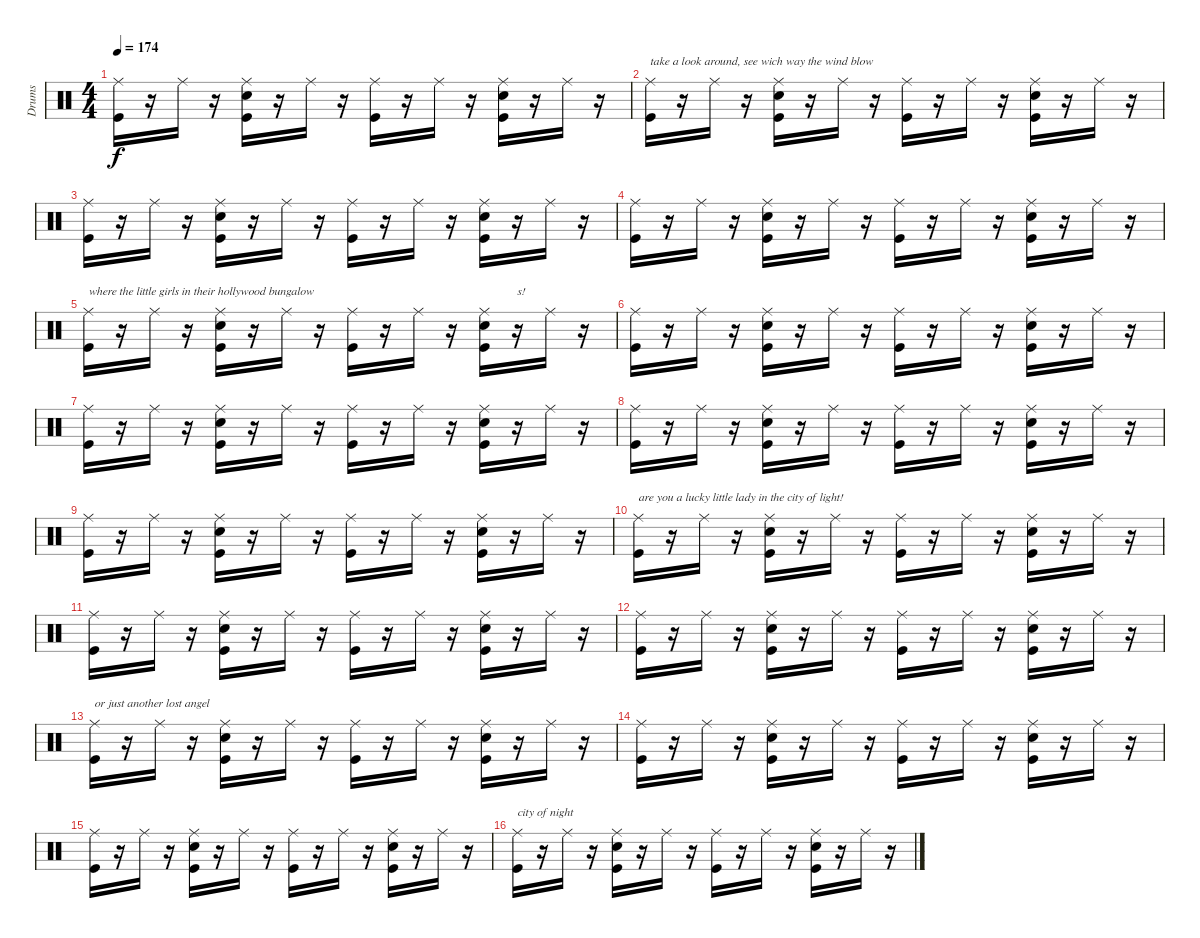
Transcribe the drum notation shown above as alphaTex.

\track ("Drums" "Drums") {instrument percussion}
\staff {score}
\articulation defaults
\ts (4 4)
\tempo 174
\clef neutral
\ks c
("Kick (hit)" "Ride (middle)").16{dy f} r.16 "Ride (middle)".16 r.16 ("Kick (hit)" "Snare (hit) 2" "Ride (middle)").16 r.16 "Ride (middle)".16 r.16 ("Kick (hit)" "Ride (middle)").16 r.16 "Ride (middle)".16 r.16 ("Kick (hit)" "Snare (hit) 2" "Ride (middle)").16 r.16 "Ride (middle)".16 r.16 |
("Kick (hit)" "Ride (middle)").16{txt "take a look around, see wich way the wind blow"} r.16 "Ride (middle)".16 r.16 ("Kick (hit)" "Snare (hit) 2" "Ride (middle)").16 r.16 "Ride (middle)".16 r.16 ("Kick (hit)" "Ride (middle)").16 r.16 "Ride (middle)".16 r.16 ("Kick (hit)" "Snare (hit) 2" "Ride (middle)").16 r.16 "Ride (middle)".16 r.16 |
("Kick (hit)" "Ride (middle)").16 r.16 "Ride (middle)".16 r.16 ("Kick (hit)" "Snare (hit) 2" "Ride (middle)").16 r.16 "Ride (middle)".16 r.16 ("Kick (hit)" "Ride (middle)").16 r.16 "Ride (middle)".16 r.16 ("Kick (hit)" "Snare (hit) 2" "Ride (middle)").16 r.16 "Ride (middle)".16 r.16 |
("Kick (hit)" "Ride (middle)").16 r.16 "Ride (middle)".16 r.16 ("Kick (hit)" "Snare (hit) 2" "Ride (middle)").16 r.16 "Ride (middle)".16 r.16 ("Kick (hit)" "Ride (middle)").16 r.16 "Ride (middle)".16 r.16 ("Kick (hit)" "Snare (hit) 2" "Ride (middle)").16 r.16 "Ride (middle)".16 r.16 |
("Kick (hit)" "Ride (middle)").16{txt "where the little girls in their hollywood bungalow"} r.16 "Ride (middle)".16 r.16 ("Kick (hit)" "Snare (hit) 2" "Ride (middle)").16 r.16 "Ride (middle)".16 r.16 ("Kick (hit)" "Ride (middle)").16 r.16 "Ride (middle)".16 r.16 ("Kick (hit)" "Snare (hit) 2" "Ride (middle)").16 r.16{txt "s!"} "Ride (middle)".16 r.16 |
("Kick (hit)" "Ride (middle)").16 r.16 "Ride (middle)".16 r.16 ("Kick (hit)" "Snare (hit) 2" "Ride (middle)").16 r.16 "Ride (middle)".16 r.16 ("Kick (hit)" "Ride (middle)").16 r.16 "Ride (middle)".16 r.16 ("Kick (hit)" "Snare (hit) 2" "Ride (middle)").16 r.16 "Ride (middle)".16 r.16 |
("Kick (hit)" "Ride (middle)").16 r.16 "Ride (middle)".16 r.16 ("Kick (hit)" "Snare (hit) 2" "Ride (middle)").16 r.16 "Ride (middle)".16 r.16 ("Kick (hit)" "Ride (middle)").16 r.16 "Ride (middle)".16 r.16 ("Kick (hit)" "Snare (hit) 2" "Ride (middle)").16 r.16 "Ride (middle)".16 r.16 |
("Kick (hit)" "Ride (middle)").16 r.16 "Ride (middle)".16 r.16 ("Kick (hit)" "Snare (hit) 2" "Ride (middle)").16 r.16 "Ride (middle)".16 r.16 ("Kick (hit)" "Ride (middle)").16 r.16 "Ride (middle)".16 r.16 ("Kick (hit)" "Snare (hit) 2" "Ride (middle)").16 r.16 "Ride (middle)".16 r.16 |
("Kick (hit)" "Ride (middle)").16 r.16 "Ride (middle)".16 r.16 ("Kick (hit)" "Snare (hit) 2" "Ride (middle)").16 r.16 "Ride (middle)".16 r.16 ("Kick (hit)" "Ride (middle)").16 r.16 "Ride (middle)".16 r.16 ("Kick (hit)" "Snare (hit) 2" "Ride (middle)").16 r.16 "Ride (middle)".16 r.16 |
("Kick (hit)" "Ride (middle)").16{txt "are you a lucky little lady in the city of light!"} r.16 "Ride (middle)".16 r.16 ("Kick (hit)" "Snare (hit) 2" "Ride (middle)").16 r.16 "Ride (middle)".16 r.16 ("Kick (hit)" "Ride (middle)").16 r.16 "Ride (middle)".16 r.16 ("Kick (hit)" "Snare (hit) 2" "Ride (middle)").16 r.16 "Ride (middle)".16 r.16 |
("Kick (hit)" "Ride (middle)").16 r.16 "Ride (middle)".16 r.16 ("Kick (hit)" "Snare (hit) 2" "Ride (middle)").16 r.16 "Ride (middle)".16 r.16 ("Kick (hit)" "Ride (middle)").16 r.16 "Ride (middle)".16 r.16 ("Kick (hit)" "Snare (hit) 2" "Ride (middle)").16 r.16 "Ride (middle)".16 r.16 |
("Kick (hit)" "Ride (middle)").16 r.16 "Ride (middle)".16 r.16 ("Kick (hit)" "Snare (hit) 2" "Ride (middle)").16 r.16 "Ride (middle)".16 r.16 ("Kick (hit)" "Ride (middle)").16 r.16 "Ride (middle)".16 r.16 ("Kick (hit)" "Snare (hit) 2" "Ride (middle)").16 r.16 "Ride (middle)".16 r.16 |
("Kick (hit)" "Ride (middle)").16{txt "or just another lost angel"} r.16 "Ride (middle)".16 r.16 ("Kick (hit)" "Snare (hit) 2" "Ride (middle)").16 r.16 "Ride (middle)".16 r.16 ("Kick (hit)" "Ride (middle)").16 r.16 "Ride (middle)".16 r.16 ("Kick (hit)" "Snare (hit) 2" "Ride (middle)").16 r.16 "Ride (middle)".16 r.16 |
("Kick (hit)" "Ride (middle)").16 r.16 "Ride (middle)".16 r.16 ("Kick (hit)" "Snare (hit) 2" "Ride (middle)").16 r.16 "Ride (middle)".16 r.16 ("Kick (hit)" "Ride (middle)").16 r.16 "Ride (middle)".16 r.16 ("Kick (hit)" "Snare (hit) 2" "Ride (middle)").16 r.16 "Ride (middle)".16 r.16 |
("Kick (hit)" "Ride (middle)").16 r.16 "Ride (middle)".16 r.16 ("Kick (hit)" "Snare (hit) 2" "Ride (middle)").16 r.16 "Ride (middle)".16 r.16 ("Kick (hit)" "Ride (middle)").16 r.16 "Ride (middle)".16 r.16 ("Kick (hit)" "Snare (hit) 2" "Ride (middle)").16 r.16 "Ride (middle)".16 r.16 |
("Kick (hit)" "Ride (middle)").16{txt "city of night"} r.16 "Ride (middle)".16 r.16 ("Kick (hit)" "Snare (hit) 2" "Ride (middle)").16 r.16 "Ride (middle)".16 r.16 ("Kick (hit)" "Ride (middle)").16 r.16 "Ride (middle)".16 r.16 ("Kick (hit)" "Snare (hit) 2" "Ride (middle)").16 r.16 "Ride (middle)".16 r.16
